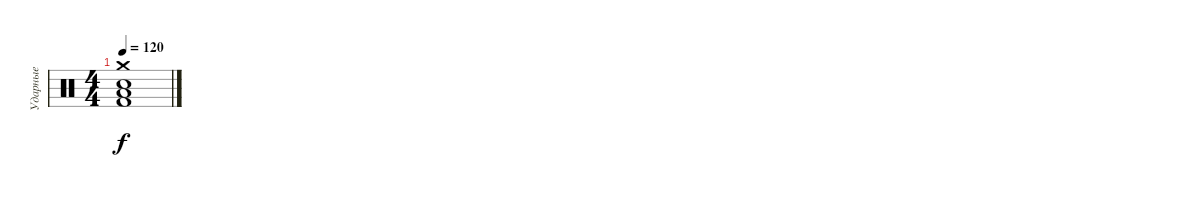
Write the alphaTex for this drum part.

\track ("Ударные" "Ударные") {instrument percussion}
\staff {score}
\articulation defaults
\ts (4 4)
\tempo 120
\clef neutral
\ks c
("Crash medium (hit)" "Electric Snare (hit)" "Kick (hit) 2" "Low Tom (hit)").1{dy f}
